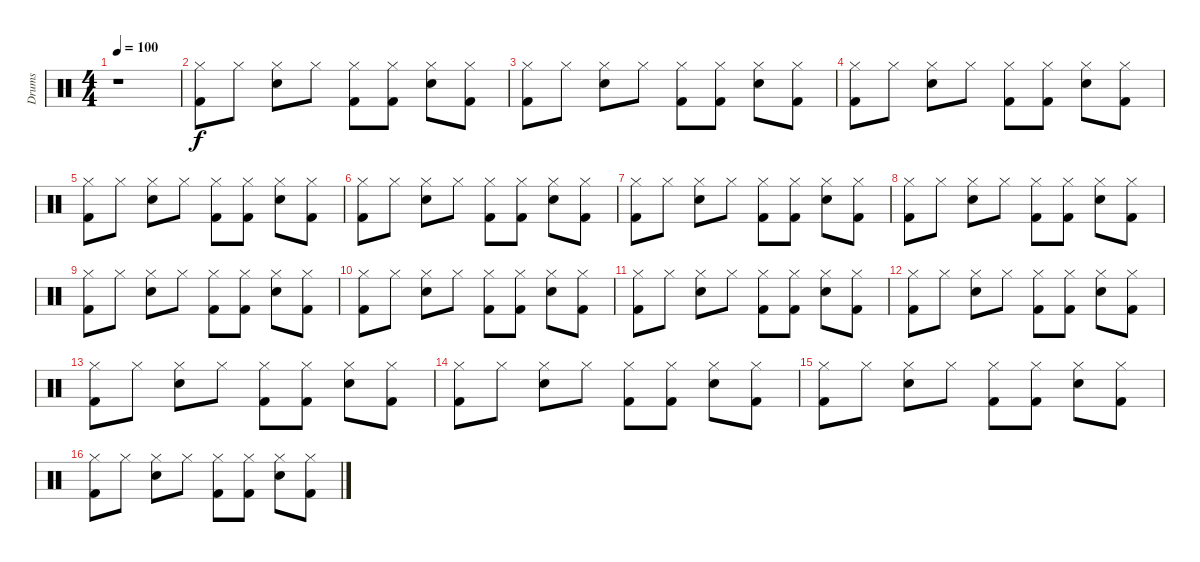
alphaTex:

\track ("Drums" "Drums") {instrument percussion}
\staff {score}
\articulation defaults
\ts (4 4)
\tempo 100
\clef neutral
\ks c
r.1{dy f} |
("Hi-Hat (closed)" "Kick (hit) 2").8 "Hi-Hat (closed)".8 ("Hi-Hat (closed)" "Snare (hit) 2").8 "Hi-Hat (closed)".8 ("Hi-Hat (closed)" "Kick (hit) 2").8 ("Hi-Hat (closed)" "Kick (hit) 2").8 ("Hi-Hat (closed)" "Snare (hit) 2").8 ("Hi-Hat (closed)" "Kick (hit) 2").8 |
("Hi-Hat (closed)" "Kick (hit) 2").8 "Hi-Hat (closed)".8 ("Hi-Hat (closed)" "Snare (hit) 2").8 "Hi-Hat (closed)".8 ("Hi-Hat (closed)" "Kick (hit) 2").8 ("Hi-Hat (closed)" "Kick (hit) 2").8 ("Hi-Hat (closed)" "Snare (hit) 2").8 ("Hi-Hat (closed)" "Kick (hit) 2").8 |
("Hi-Hat (closed)" "Kick (hit) 2").8 "Hi-Hat (closed)".8 ("Hi-Hat (closed)" "Snare (hit) 2").8 "Hi-Hat (closed)".8 ("Hi-Hat (closed)" "Kick (hit) 2").8 ("Hi-Hat (closed)" "Kick (hit) 2").8 ("Hi-Hat (closed)" "Snare (hit) 2").8 ("Hi-Hat (closed)" "Kick (hit) 2").8 |
("Hi-Hat (closed)" "Kick (hit) 2").8 "Hi-Hat (closed)".8 ("Hi-Hat (closed)" "Snare (hit) 2").8 "Hi-Hat (closed)".8 ("Hi-Hat (closed)" "Kick (hit) 2").8 ("Hi-Hat (closed)" "Kick (hit) 2").8 ("Hi-Hat (closed)" "Snare (hit) 2").8 ("Hi-Hat (closed)" "Kick (hit) 2").8 |
("Hi-Hat (closed)" "Kick (hit) 2").8 "Hi-Hat (closed)".8 ("Hi-Hat (closed)" "Snare (hit) 2").8 "Hi-Hat (closed)".8 ("Hi-Hat (closed)" "Kick (hit) 2").8 ("Hi-Hat (closed)" "Kick (hit) 2").8 ("Hi-Hat (closed)" "Snare (hit) 2").8 ("Hi-Hat (closed)" "Kick (hit) 2").8 |
("Hi-Hat (closed)" "Kick (hit) 2").8 "Hi-Hat (closed)".8 ("Hi-Hat (closed)" "Snare (hit) 2").8 "Hi-Hat (closed)".8 ("Hi-Hat (closed)" "Kick (hit) 2").8 ("Hi-Hat (closed)" "Kick (hit) 2").8 ("Hi-Hat (closed)" "Snare (hit) 2").8 ("Hi-Hat (closed)" "Kick (hit) 2").8 |
("Hi-Hat (closed)" "Kick (hit) 2").8 "Hi-Hat (closed)".8 ("Hi-Hat (closed)" "Snare (hit) 2").8 "Hi-Hat (closed)".8 ("Hi-Hat (closed)" "Kick (hit) 2").8 ("Hi-Hat (closed)" "Kick (hit) 2").8 ("Hi-Hat (closed)" "Snare (hit) 2").8 ("Hi-Hat (closed)" "Kick (hit) 2").8 |
("Hi-Hat (closed)" "Kick (hit) 2").8 "Hi-Hat (closed)".8 ("Hi-Hat (closed)" "Snare (hit) 2").8 "Hi-Hat (closed)".8 ("Hi-Hat (closed)" "Kick (hit) 2").8 ("Hi-Hat (closed)" "Kick (hit) 2").8 ("Hi-Hat (closed)" "Snare (hit) 2").8 ("Hi-Hat (closed)" "Kick (hit) 2").8 |
("Hi-Hat (closed)" "Kick (hit) 2").8 "Hi-Hat (closed)".8 ("Hi-Hat (closed)" "Snare (hit) 2").8 "Hi-Hat (closed)".8 ("Hi-Hat (closed)" "Kick (hit) 2").8 ("Hi-Hat (closed)" "Kick (hit) 2").8 ("Hi-Hat (closed)" "Snare (hit) 2").8 ("Hi-Hat (closed)" "Kick (hit) 2").8 |
("Hi-Hat (closed)" "Kick (hit) 2").8 "Hi-Hat (closed)".8 ("Hi-Hat (closed)" "Snare (hit) 2").8 "Hi-Hat (closed)".8 ("Hi-Hat (closed)" "Kick (hit) 2").8 ("Hi-Hat (closed)" "Kick (hit) 2").8 ("Hi-Hat (closed)" "Snare (hit) 2").8 ("Hi-Hat (closed)" "Kick (hit) 2").8 |
("Hi-Hat (closed)" "Kick (hit) 2").8 "Hi-Hat (closed)".8 ("Hi-Hat (closed)" "Snare (hit) 2").8 "Hi-Hat (closed)".8 ("Hi-Hat (closed)" "Kick (hit) 2").8 ("Hi-Hat (closed)" "Kick (hit) 2").8 ("Hi-Hat (closed)" "Snare (hit) 2").8 ("Hi-Hat (closed)" "Kick (hit) 2").8 |
("Hi-Hat (closed)" "Kick (hit) 2").8 "Hi-Hat (closed)".8 ("Hi-Hat (closed)" "Snare (hit) 2").8 "Hi-Hat (closed)".8 ("Hi-Hat (closed)" "Kick (hit) 2").8 ("Hi-Hat (closed)" "Kick (hit) 2").8 ("Hi-Hat (closed)" "Snare (hit) 2").8 ("Hi-Hat (closed)" "Kick (hit) 2").8 |
("Hi-Hat (closed)" "Kick (hit) 2").8 "Hi-Hat (closed)".8 ("Hi-Hat (closed)" "Snare (hit) 2").8 "Hi-Hat (closed)".8 ("Hi-Hat (closed)" "Kick (hit) 2").8 ("Hi-Hat (closed)" "Kick (hit) 2").8 ("Hi-Hat (closed)" "Snare (hit) 2").8 ("Hi-Hat (closed)" "Kick (hit) 2").8 |
("Hi-Hat (closed)" "Kick (hit) 2").8 "Hi-Hat (closed)".8 ("Hi-Hat (closed)" "Snare (hit) 2").8 "Hi-Hat (closed)".8 ("Hi-Hat (closed)" "Kick (hit) 2").8 ("Hi-Hat (closed)" "Kick (hit) 2").8 ("Hi-Hat (closed)" "Snare (hit) 2").8 ("Hi-Hat (closed)" "Kick (hit) 2").8 |
("Hi-Hat (closed)" "Kick (hit) 2").8 "Hi-Hat (closed)".8 ("Hi-Hat (closed)" "Snare (hit) 2").8 "Hi-Hat (closed)".8 ("Hi-Hat (closed)" "Kick (hit) 2").8 ("Hi-Hat (closed)" "Kick (hit) 2").8 ("Hi-Hat (closed)" "Snare (hit) 2").8 ("Hi-Hat (closed)" "Kick (hit) 2").8
